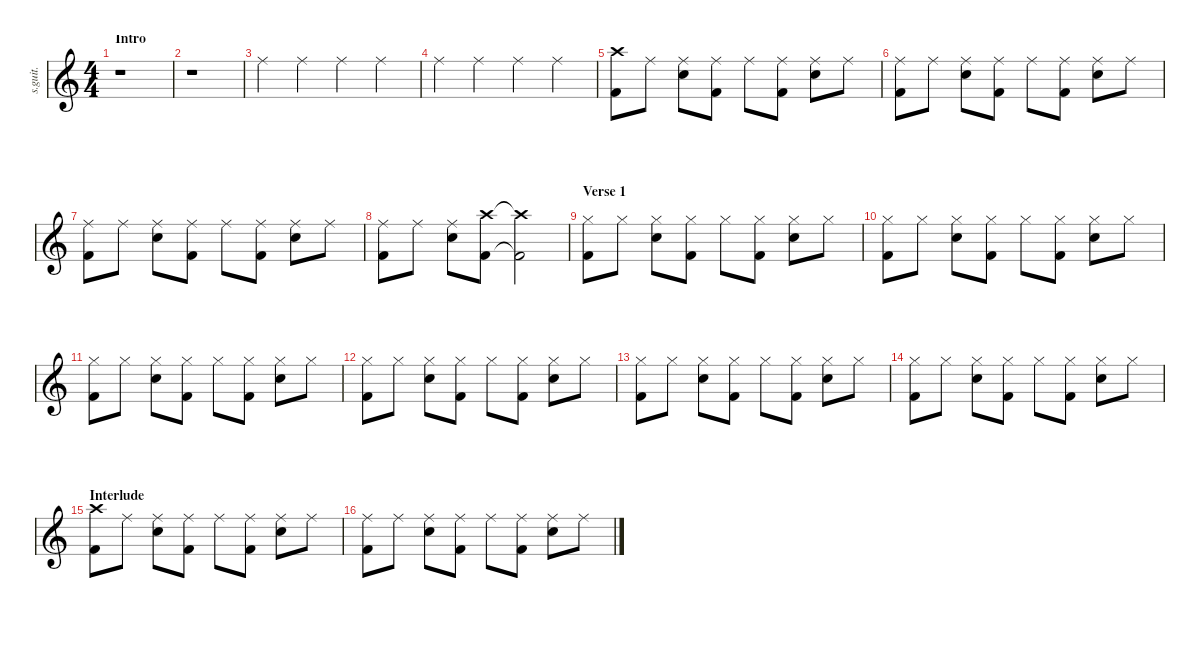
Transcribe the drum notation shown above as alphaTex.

\defaultSystemsLayout 4
\hideDynamics
\bracketExtendMode nobrackets
\track ("Drums (Pat Wilson)" "s.guit.") {instrument percussion}
\staff {score}
\articulation defaults
\ts (4 4)
\beaming (8 2 2 2 2)
\section ("" "Intro")
\tempo (76 hide)
\clef g2
\ks c
r.1{dy f} |
r.1 |
"Ride (middle)".4{lyrics (0 "") lyrics (1 "") lyrics (2 "") lyrics (3 "") lyrics (4 "") lyrics (5 "") lyrics (6 "") lyrics (7 "") lyrics (8 "") lyrics (9 "")} "Ride (middle)".4{lyrics (0 "") lyrics (1 "") lyrics (2 "") lyrics (3 "") lyrics (4 "") lyrics (5 "") lyrics (6 "") lyrics (7 "") lyrics (8 "") lyrics (9 "")} "Ride (middle)".4{lyrics (0 "") lyrics (1 "") lyrics (2 "") lyrics (3 "") lyrics (4 "") lyrics (5 "") lyrics (6 "") lyrics (7 "") lyrics (8 "") lyrics (9 "")} "Ride (middle)".4{lyrics (0 "") lyrics (1 "") lyrics (2 "") lyrics (3 "") lyrics (4 "") lyrics (5 "") lyrics (6 "") lyrics (7 "") lyrics (8 "") lyrics (9 "")} |
"Ride (middle)".4{lyrics (0 "") lyrics (1 "") lyrics (2 "") lyrics (3 "") lyrics (4 "") lyrics (5 "") lyrics (6 "") lyrics (7 "") lyrics (8 "") lyrics (9 "")} "Ride (middle)".4{lyrics (0 "") lyrics (1 "") lyrics (2 "") lyrics (3 "") lyrics (4 "") lyrics (5 "") lyrics (6 "") lyrics (7 "") lyrics (8 "") lyrics (9 "")} "Ride (middle)".4{lyrics (0 "") lyrics (1 "") lyrics (2 "") lyrics (3 "") lyrics (4 "") lyrics (5 "") lyrics (6 "") lyrics (7 "") lyrics (8 "") lyrics (9 "")} "Ride (middle)".4{lyrics (0 "") lyrics (1 "") lyrics (2 "") lyrics (3 "") lyrics (4 "") lyrics (5 "") lyrics (6 "") lyrics (7 "") lyrics (8 "") lyrics (9 "")} |
("Crash high (hit)" "Kick (hit) 2").8{lyrics (0 "") lyrics (1 "") lyrics (2 "") lyrics (3 "") lyrics (4 "") lyrics (5 "") lyrics (6 "") lyrics (7 "") lyrics (8 "") lyrics (9 "")} "Ride (middle)".8{lyrics (0 "") lyrics (1 "") lyrics (2 "") lyrics (3 "") lyrics (4 "") lyrics (5 "") lyrics (6 "") lyrics (7 "") lyrics (8 "") lyrics (9 "")} ("Ride (middle)" "Snare (hit) 2").8{lyrics (0 "") lyrics (1 "") lyrics (2 "") lyrics (3 "") lyrics (4 "") lyrics (5 "") lyrics (6 "") lyrics (7 "") lyrics (8 "") lyrics (9 "")} ("Ride (middle)" "Kick (hit) 2").8{lyrics (0 "") lyrics (1 "") lyrics (2 "") lyrics (3 "") lyrics (4 "") lyrics (5 "") lyrics (6 "") lyrics (7 "") lyrics (8 "") lyrics (9 "")} "Ride (middle)".8{lyrics (0 "") lyrics (1 "") lyrics (2 "") lyrics (3 "") lyrics (4 "") lyrics (5 "") lyrics (6 "") lyrics (7 "") lyrics (8 "") lyrics (9 "")} ("Ride (middle)" "Kick (hit) 2").8{lyrics (0 "") lyrics (1 "") lyrics (2 "") lyrics (3 "") lyrics (4 "") lyrics (5 "") lyrics (6 "") lyrics (7 "") lyrics (8 "") lyrics (9 "")} ("Ride (middle)" "Snare (hit) 2").8{lyrics (0 "") lyrics (1 "") lyrics (2 "") lyrics (3 "") lyrics (4 "") lyrics (5 "") lyrics (6 "") lyrics (7 "") lyrics (8 "") lyrics (9 "")} "Ride (middle)".8{lyrics (0 "") lyrics (1 "") lyrics (2 "") lyrics (3 "") lyrics (4 "") lyrics (5 "") lyrics (6 "") lyrics (7 "") lyrics (8 "") lyrics (9 "")} |
("Ride (middle)" "Kick (hit) 2").8{lyrics (0 "") lyrics (1 "") lyrics (2 "") lyrics (3 "") lyrics (4 "") lyrics (5 "") lyrics (6 "") lyrics (7 "") lyrics (8 "") lyrics (9 "")} "Ride (middle)".8{lyrics (0 "") lyrics (1 "") lyrics (2 "") lyrics (3 "") lyrics (4 "") lyrics (5 "") lyrics (6 "") lyrics (7 "") lyrics (8 "") lyrics (9 "")} ("Ride (middle)" "Snare (hit) 2").8{lyrics (0 "") lyrics (1 "") lyrics (2 "") lyrics (3 "") lyrics (4 "") lyrics (5 "") lyrics (6 "") lyrics (7 "") lyrics (8 "") lyrics (9 "")} ("Ride (middle)" "Kick (hit) 2").8{lyrics (0 "") lyrics (1 "") lyrics (2 "") lyrics (3 "") lyrics (4 "") lyrics (5 "") lyrics (6 "") lyrics (7 "") lyrics (8 "") lyrics (9 "")} "Ride (middle)".8{lyrics (0 "") lyrics (1 "") lyrics (2 "") lyrics (3 "") lyrics (4 "") lyrics (5 "") lyrics (6 "") lyrics (7 "") lyrics (8 "") lyrics (9 "")} ("Ride (middle)" "Kick (hit) 2").8{lyrics (0 "") lyrics (1 "") lyrics (2 "") lyrics (3 "") lyrics (4 "") lyrics (5 "") lyrics (6 "") lyrics (7 "") lyrics (8 "") lyrics (9 "")} ("Ride (middle)" "Snare (hit) 2").8{lyrics (0 "") lyrics (1 "") lyrics (2 "") lyrics (3 "") lyrics (4 "") lyrics (5 "") lyrics (6 "") lyrics (7 "") lyrics (8 "") lyrics (9 "")} "Ride (middle)".8{lyrics (0 "") lyrics (1 "") lyrics (2 "") lyrics (3 "") lyrics (4 "") lyrics (5 "") lyrics (6 "") lyrics (7 "") lyrics (8 "") lyrics (9 "")} |
("Ride (middle)" "Kick (hit) 2").8{lyrics (0 "") lyrics (1 "") lyrics (2 "") lyrics (3 "") lyrics (4 "") lyrics (5 "") lyrics (6 "") lyrics (7 "") lyrics (8 "") lyrics (9 "")} "Ride (middle)".8{lyrics (0 "") lyrics (1 "") lyrics (2 "") lyrics (3 "") lyrics (4 "") lyrics (5 "") lyrics (6 "") lyrics (7 "") lyrics (8 "") lyrics (9 "")} ("Ride (middle)" "Snare (hit) 2").8{lyrics (0 "") lyrics (1 "") lyrics (2 "") lyrics (3 "") lyrics (4 "") lyrics (5 "") lyrics (6 "") lyrics (7 "") lyrics (8 "") lyrics (9 "")} ("Ride (middle)" "Kick (hit) 2").8{lyrics (0 "") lyrics (1 "") lyrics (2 "") lyrics (3 "") lyrics (4 "") lyrics (5 "") lyrics (6 "") lyrics (7 "") lyrics (8 "") lyrics (9 "")} "Ride (middle)".8{lyrics (0 "") lyrics (1 "") lyrics (2 "") lyrics (3 "") lyrics (4 "") lyrics (5 "") lyrics (6 "") lyrics (7 "") lyrics (8 "") lyrics (9 "")} ("Ride (middle)" "Kick (hit) 2").8{lyrics (0 "") lyrics (1 "") lyrics (2 "") lyrics (3 "") lyrics (4 "") lyrics (5 "") lyrics (6 "") lyrics (7 "") lyrics (8 "") lyrics (9 "")} ("Ride (middle)" "Snare (hit) 2").8{lyrics (0 "") lyrics (1 "") lyrics (2 "") lyrics (3 "") lyrics (4 "") lyrics (5 "") lyrics (6 "") lyrics (7 "") lyrics (8 "") lyrics (9 "")} "Ride (middle)".8{lyrics (0 "") lyrics (1 "") lyrics (2 "") lyrics (3 "") lyrics (4 "") lyrics (5 "") lyrics (6 "") lyrics (7 "") lyrics (8 "") lyrics (9 "")} |
("Ride (middle)" "Kick (hit) 2").8{lyrics (0 "") lyrics (1 "") lyrics (2 "") lyrics (3 "") lyrics (4 "") lyrics (5 "") lyrics (6 "") lyrics (7 "") lyrics (8 "") lyrics (9 "")} "Ride (middle)".8{lyrics (0 "") lyrics (1 "") lyrics (2 "") lyrics (3 "") lyrics (4 "") lyrics (5 "") lyrics (6 "") lyrics (7 "") lyrics (8 "") lyrics (9 "")} ("Ride (middle)" "Snare (hit) 2").8{lyrics (0 "") lyrics (1 "") lyrics (2 "") lyrics (3 "") lyrics (4 "") lyrics (5 "") lyrics (6 "") lyrics (7 "") lyrics (8 "") lyrics (9 "")} ("Crash high (hit)" "Kick (hit) 2").8{lyrics (0 "") lyrics (1 "") lyrics (2 "") lyrics (3 "") lyrics (4 "") lyrics (5 "") lyrics (6 "") lyrics (7 "") lyrics (8 "") lyrics (9 "")} ("Crash high (hit)"{t} "Kick (hit) 2"{t}).2{lyrics (0 "") lyrics (1 "") lyrics (2 "") lyrics (3 "") lyrics (4 "") lyrics (5 "") lyrics (6 "") lyrics (7 "") lyrics (8 "") lyrics (9 "")} |
\section ("" "Verse 1")
("Hi-Hat (closed)" "Kick (hit) 2").8{lyrics (0 "") lyrics (1 "") lyrics (2 "") lyrics (3 "") lyrics (4 "") lyrics (5 "") lyrics (6 "") lyrics (7 "") lyrics (8 "") lyrics (9 "")} "Hi-Hat (closed)".8{lyrics (0 "") lyrics (1 "") lyrics (2 "") lyrics (3 "") lyrics (4 "") lyrics (5 "") lyrics (6 "") lyrics (7 "") lyrics (8 "") lyrics (9 "")} ("Hi-Hat (closed)" "Snare (hit) 2").8{lyrics (0 "") lyrics (1 "") lyrics (2 "") lyrics (3 "") lyrics (4 "") lyrics (5 "") lyrics (6 "") lyrics (7 "") lyrics (8 "") lyrics (9 "")} ("Hi-Hat (closed)" "Kick (hit) 2").8{lyrics (0 "") lyrics (1 "") lyrics (2 "") lyrics (3 "") lyrics (4 "") lyrics (5 "") lyrics (6 "") lyrics (7 "") lyrics (8 "") lyrics (9 "")} "Hi-Hat (closed)".8{lyrics (0 "") lyrics (1 "") lyrics (2 "") lyrics (3 "") lyrics (4 "") lyrics (5 "") lyrics (6 "") lyrics (7 "") lyrics (8 "") lyrics (9 "")} ("Hi-Hat (closed)" "Kick (hit) 2").8{lyrics (0 "") lyrics (1 "") lyrics (2 "") lyrics (3 "") lyrics (4 "") lyrics (5 "") lyrics (6 "") lyrics (7 "") lyrics (8 "") lyrics (9 "")} ("Hi-Hat (closed)" "Snare (hit) 2").8{lyrics (0 "") lyrics (1 "") lyrics (2 "") lyrics (3 "") lyrics (4 "") lyrics (5 "") lyrics (6 "") lyrics (7 "") lyrics (8 "") lyrics (9 "")} "Hi-Hat (closed)".8{lyrics (0 "") lyrics (1 "") lyrics (2 "") lyrics (3 "") lyrics (4 "") lyrics (5 "") lyrics (6 "") lyrics (7 "") lyrics (8 "") lyrics (9 "")} |
("Hi-Hat (closed)" "Kick (hit) 2").8{lyrics (0 "") lyrics (1 "") lyrics (2 "") lyrics (3 "") lyrics (4 "") lyrics (5 "") lyrics (6 "") lyrics (7 "") lyrics (8 "") lyrics (9 "")} "Hi-Hat (closed)".8{lyrics (0 "") lyrics (1 "") lyrics (2 "") lyrics (3 "") lyrics (4 "") lyrics (5 "") lyrics (6 "") lyrics (7 "") lyrics (8 "") lyrics (9 "")} ("Hi-Hat (closed)" "Snare (hit) 2").8{lyrics (0 "") lyrics (1 "") lyrics (2 "") lyrics (3 "") lyrics (4 "") lyrics (5 "") lyrics (6 "") lyrics (7 "") lyrics (8 "") lyrics (9 "")} ("Hi-Hat (closed)" "Kick (hit) 2").8{lyrics (0 "") lyrics (1 "") lyrics (2 "") lyrics (3 "") lyrics (4 "") lyrics (5 "") lyrics (6 "") lyrics (7 "") lyrics (8 "") lyrics (9 "")} "Hi-Hat (closed)".8{lyrics (0 "") lyrics (1 "") lyrics (2 "") lyrics (3 "") lyrics (4 "") lyrics (5 "") lyrics (6 "") lyrics (7 "") lyrics (8 "") lyrics (9 "")} ("Hi-Hat (closed)" "Kick (hit) 2").8{lyrics (0 "") lyrics (1 "") lyrics (2 "") lyrics (3 "") lyrics (4 "") lyrics (5 "") lyrics (6 "") lyrics (7 "") lyrics (8 "") lyrics (9 "")} ("Hi-Hat (closed)" "Snare (hit) 2").8{lyrics (0 "") lyrics (1 "") lyrics (2 "") lyrics (3 "") lyrics (4 "") lyrics (5 "") lyrics (6 "") lyrics (7 "") lyrics (8 "") lyrics (9 "")} "Hi-Hat (closed)".8{lyrics (0 "") lyrics (1 "") lyrics (2 "") lyrics (3 "") lyrics (4 "") lyrics (5 "") lyrics (6 "") lyrics (7 "") lyrics (8 "") lyrics (9 "")} |
("Hi-Hat (closed)" "Kick (hit) 2").8{lyrics (0 "") lyrics (1 "") lyrics (2 "") lyrics (3 "") lyrics (4 "") lyrics (5 "") lyrics (6 "") lyrics (7 "") lyrics (8 "") lyrics (9 "")} "Hi-Hat (closed)".8{lyrics (0 "") lyrics (1 "") lyrics (2 "") lyrics (3 "") lyrics (4 "") lyrics (5 "") lyrics (6 "") lyrics (7 "") lyrics (8 "") lyrics (9 "")} ("Hi-Hat (closed)" "Snare (hit) 2").8{lyrics (0 "") lyrics (1 "") lyrics (2 "") lyrics (3 "") lyrics (4 "") lyrics (5 "") lyrics (6 "") lyrics (7 "") lyrics (8 "") lyrics (9 "")} ("Hi-Hat (closed)" "Kick (hit) 2").8{lyrics (0 "") lyrics (1 "") lyrics (2 "") lyrics (3 "") lyrics (4 "") lyrics (5 "") lyrics (6 "") lyrics (7 "") lyrics (8 "") lyrics (9 "")} "Hi-Hat (closed)".8{lyrics (0 "") lyrics (1 "") lyrics (2 "") lyrics (3 "") lyrics (4 "") lyrics (5 "") lyrics (6 "") lyrics (7 "") lyrics (8 "") lyrics (9 "")} ("Hi-Hat (closed)" "Kick (hit) 2").8{lyrics (0 "") lyrics (1 "") lyrics (2 "") lyrics (3 "") lyrics (4 "") lyrics (5 "") lyrics (6 "") lyrics (7 "") lyrics (8 "") lyrics (9 "")} ("Hi-Hat (closed)" "Snare (hit) 2").8{lyrics (0 "") lyrics (1 "") lyrics (2 "") lyrics (3 "") lyrics (4 "") lyrics (5 "") lyrics (6 "") lyrics (7 "") lyrics (8 "") lyrics (9 "")} "Hi-Hat (closed)".8{lyrics (0 "") lyrics (1 "") lyrics (2 "") lyrics (3 "") lyrics (4 "") lyrics (5 "") lyrics (6 "") lyrics (7 "") lyrics (8 "") lyrics (9 "")} |
("Hi-Hat (closed)" "Kick (hit) 2").8{lyrics (0 "") lyrics (1 "") lyrics (2 "") lyrics (3 "") lyrics (4 "") lyrics (5 "") lyrics (6 "") lyrics (7 "") lyrics (8 "") lyrics (9 "")} "Hi-Hat (closed)".8{lyrics (0 "") lyrics (1 "") lyrics (2 "") lyrics (3 "") lyrics (4 "") lyrics (5 "") lyrics (6 "") lyrics (7 "") lyrics (8 "") lyrics (9 "")} ("Hi-Hat (closed)" "Snare (hit) 2").8{lyrics (0 "") lyrics (1 "") lyrics (2 "") lyrics (3 "") lyrics (4 "") lyrics (5 "") lyrics (6 "") lyrics (7 "") lyrics (8 "") lyrics (9 "")} ("Hi-Hat (closed)" "Kick (hit) 2").8{lyrics (0 "") lyrics (1 "") lyrics (2 "") lyrics (3 "") lyrics (4 "") lyrics (5 "") lyrics (6 "") lyrics (7 "") lyrics (8 "") lyrics (9 "")} "Hi-Hat (closed)".8{lyrics (0 "") lyrics (1 "") lyrics (2 "") lyrics (3 "") lyrics (4 "") lyrics (5 "") lyrics (6 "") lyrics (7 "") lyrics (8 "") lyrics (9 "")} ("Hi-Hat (closed)" "Kick (hit) 2").8{lyrics (0 "") lyrics (1 "") lyrics (2 "") lyrics (3 "") lyrics (4 "") lyrics (5 "") lyrics (6 "") lyrics (7 "") lyrics (8 "") lyrics (9 "")} ("Hi-Hat (closed)" "Snare (hit) 2").8{lyrics (0 "") lyrics (1 "") lyrics (2 "") lyrics (3 "") lyrics (4 "") lyrics (5 "") lyrics (6 "") lyrics (7 "") lyrics (8 "") lyrics (9 "")} "Hi-Hat (closed)".8{lyrics (0 "") lyrics (1 "") lyrics (2 "") lyrics (3 "") lyrics (4 "") lyrics (5 "") lyrics (6 "") lyrics (7 "") lyrics (8 "") lyrics (9 "")} |
("Hi-Hat (closed)" "Kick (hit) 2").8{lyrics (0 "") lyrics (1 "") lyrics (2 "") lyrics (3 "") lyrics (4 "") lyrics (5 "") lyrics (6 "") lyrics (7 "") lyrics (8 "") lyrics (9 "")} "Hi-Hat (closed)".8{lyrics (0 "") lyrics (1 "") lyrics (2 "") lyrics (3 "") lyrics (4 "") lyrics (5 "") lyrics (6 "") lyrics (7 "") lyrics (8 "") lyrics (9 "")} ("Hi-Hat (closed)" "Snare (hit) 2").8{lyrics (0 "") lyrics (1 "") lyrics (2 "") lyrics (3 "") lyrics (4 "") lyrics (5 "") lyrics (6 "") lyrics (7 "") lyrics (8 "") lyrics (9 "")} ("Hi-Hat (closed)" "Kick (hit) 2").8{lyrics (0 "") lyrics (1 "") lyrics (2 "") lyrics (3 "") lyrics (4 "") lyrics (5 "") lyrics (6 "") lyrics (7 "") lyrics (8 "") lyrics (9 "")} "Hi-Hat (closed)".8{lyrics (0 "") lyrics (1 "") lyrics (2 "") lyrics (3 "") lyrics (4 "") lyrics (5 "") lyrics (6 "") lyrics (7 "") lyrics (8 "") lyrics (9 "")} ("Hi-Hat (closed)" "Kick (hit) 2").8{lyrics (0 "") lyrics (1 "") lyrics (2 "") lyrics (3 "") lyrics (4 "") lyrics (5 "") lyrics (6 "") lyrics (7 "") lyrics (8 "") lyrics (9 "")} ("Hi-Hat (closed)" "Snare (hit) 2").8{lyrics (0 "") lyrics (1 "") lyrics (2 "") lyrics (3 "") lyrics (4 "") lyrics (5 "") lyrics (6 "") lyrics (7 "") lyrics (8 "") lyrics (9 "")} "Hi-Hat (closed)".8{lyrics (0 "") lyrics (1 "") lyrics (2 "") lyrics (3 "") lyrics (4 "") lyrics (5 "") lyrics (6 "") lyrics (7 "") lyrics (8 "") lyrics (9 "")} |
("Hi-Hat (closed)" "Kick (hit) 2").8{lyrics (0 "") lyrics (1 "") lyrics (2 "") lyrics (3 "") lyrics (4 "") lyrics (5 "") lyrics (6 "") lyrics (7 "") lyrics (8 "") lyrics (9 "")} "Hi-Hat (closed)".8{lyrics (0 "") lyrics (1 "") lyrics (2 "") lyrics (3 "") lyrics (4 "") lyrics (5 "") lyrics (6 "") lyrics (7 "") lyrics (8 "") lyrics (9 "")} ("Hi-Hat (closed)" "Snare (hit) 2").8{lyrics (0 "") lyrics (1 "") lyrics (2 "") lyrics (3 "") lyrics (4 "") lyrics (5 "") lyrics (6 "") lyrics (7 "") lyrics (8 "") lyrics (9 "")} ("Hi-Hat (closed)" "Kick (hit) 2").8{lyrics (0 "") lyrics (1 "") lyrics (2 "") lyrics (3 "") lyrics (4 "") lyrics (5 "") lyrics (6 "") lyrics (7 "") lyrics (8 "") lyrics (9 "")} "Hi-Hat (closed)".8{lyrics (0 "") lyrics (1 "") lyrics (2 "") lyrics (3 "") lyrics (4 "") lyrics (5 "") lyrics (6 "") lyrics (7 "") lyrics (8 "") lyrics (9 "")} ("Hi-Hat (closed)" "Kick (hit) 2").8{lyrics (0 "") lyrics (1 "") lyrics (2 "") lyrics (3 "") lyrics (4 "") lyrics (5 "") lyrics (6 "") lyrics (7 "") lyrics (8 "") lyrics (9 "")} ("Hi-Hat (closed)" "Snare (hit) 2").8{lyrics (0 "") lyrics (1 "") lyrics (2 "") lyrics (3 "") lyrics (4 "") lyrics (5 "") lyrics (6 "") lyrics (7 "") lyrics (8 "") lyrics (9 "")} "Hi-Hat (closed)".8{lyrics (0 "") lyrics (1 "") lyrics (2 "") lyrics (3 "") lyrics (4 "") lyrics (5 "") lyrics (6 "") lyrics (7 "") lyrics (8 "") lyrics (9 "")} |
\section ("" "Interlude")
("Crash high (hit)" "Kick (hit) 2").8{lyrics (0 "") lyrics (1 "") lyrics (2 "") lyrics (3 "") lyrics (4 "") lyrics (5 "") lyrics (6 "") lyrics (7 "") lyrics (8 "") lyrics (9 "")} "Ride (middle)".8{lyrics (0 "") lyrics (1 "") lyrics (2 "") lyrics (3 "") lyrics (4 "") lyrics (5 "") lyrics (6 "") lyrics (7 "") lyrics (8 "") lyrics (9 "")} ("Ride (middle)" "Snare (hit) 2").8{lyrics (0 "") lyrics (1 "") lyrics (2 "") lyrics (3 "") lyrics (4 "") lyrics (5 "") lyrics (6 "") lyrics (7 "") lyrics (8 "") lyrics (9 "")} ("Ride (middle)" "Kick (hit) 2").8{lyrics (0 "") lyrics (1 "") lyrics (2 "") lyrics (3 "") lyrics (4 "") lyrics (5 "") lyrics (6 "") lyrics (7 "") lyrics (8 "") lyrics (9 "")} "Ride (middle)".8{lyrics (0 "") lyrics (1 "") lyrics (2 "") lyrics (3 "") lyrics (4 "") lyrics (5 "") lyrics (6 "") lyrics (7 "") lyrics (8 "") lyrics (9 "")} ("Ride (middle)" "Kick (hit) 2").8{lyrics (0 "") lyrics (1 "") lyrics (2 "") lyrics (3 "") lyrics (4 "") lyrics (5 "") lyrics (6 "") lyrics (7 "") lyrics (8 "") lyrics (9 "")} ("Ride (middle)" "Snare (hit) 2").8{lyrics (0 "") lyrics (1 "") lyrics (2 "") lyrics (3 "") lyrics (4 "") lyrics (5 "") lyrics (6 "") lyrics (7 "") lyrics (8 "") lyrics (9 "")} "Ride (middle)".8{lyrics (0 "") lyrics (1 "") lyrics (2 "") lyrics (3 "") lyrics (4 "") lyrics (5 "") lyrics (6 "") lyrics (7 "") lyrics (8 "") lyrics (9 "")} |
("Ride (middle)" "Kick (hit) 2").8{lyrics (0 "") lyrics (1 "") lyrics (2 "") lyrics (3 "") lyrics (4 "") lyrics (5 "") lyrics (6 "") lyrics (7 "") lyrics (8 "") lyrics (9 "")} "Ride (middle)".8{lyrics (0 "") lyrics (1 "") lyrics (2 "") lyrics (3 "") lyrics (4 "") lyrics (5 "") lyrics (6 "") lyrics (7 "") lyrics (8 "") lyrics (9 "")} ("Ride (middle)" "Snare (hit) 2").8{lyrics (0 "") lyrics (1 "") lyrics (2 "") lyrics (3 "") lyrics (4 "") lyrics (5 "") lyrics (6 "") lyrics (7 "") lyrics (8 "") lyrics (9 "")} ("Ride (middle)" "Kick (hit) 2").8{lyrics (0 "") lyrics (1 "") lyrics (2 "") lyrics (3 "") lyrics (4 "") lyrics (5 "") lyrics (6 "") lyrics (7 "") lyrics (8 "") lyrics (9 "")} "Ride (middle)".8{lyrics (0 "") lyrics (1 "") lyrics (2 "") lyrics (3 "") lyrics (4 "") lyrics (5 "") lyrics (6 "") lyrics (7 "") lyrics (8 "") lyrics (9 "")} ("Ride (middle)" "Kick (hit) 2").8{lyrics (0 "") lyrics (1 "") lyrics (2 "") lyrics (3 "") lyrics (4 "") lyrics (5 "") lyrics (6 "") lyrics (7 "") lyrics (8 "") lyrics (9 "")} ("Ride (middle)" "Snare (hit) 2").8{lyrics (0 "") lyrics (1 "") lyrics (2 "") lyrics (3 "") lyrics (4 "") lyrics (5 "") lyrics (6 "") lyrics (7 "") lyrics (8 "") lyrics (9 "")} "Ride (middle)".8{lyrics (0 "") lyrics (1 "") lyrics (2 "") lyrics (3 "") lyrics (4 "") lyrics (5 "") lyrics (6 "") lyrics (7 "") lyrics (8 "") lyrics (9 "")}
